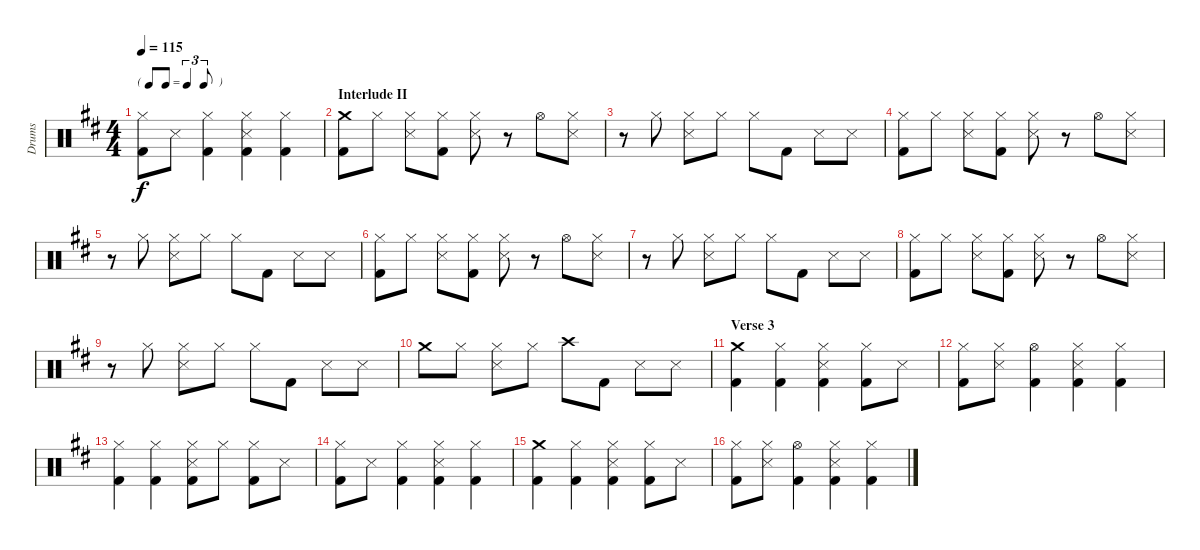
\track ("Drums" "Drums") {instrument percussion}
\staff {score}
\articulation defaults
\ts (4 4)
\tf triplet8th
\tempo 115
\clef neutral
\ks d
("Hi-Hat (closed)" "Kick (hit) 2").8{dy f} "Snare (side stick) 3".8 ("Hi-Hat (closed)" "Kick (hit) 2").4 ("Hi-Hat (closed)" "Snare (side stick) 3" "Kick (hit) 2").4 ("Hi-Hat (closed)" "Kick (hit) 2").4 |
\section ("" "Interlude II")
("Crash medium (hit)" "Kick (hit) 2").8 "Hi-Hat (closed)".8 ("Hi-Hat (closed)" "Snare (side stick) 3").8 ("Hi-Hat (closed)" "Kick (hit) 2").8 ("Hi-Hat (closed)" "Snare (side stick) 3").8 r.8 "Hi-Hat (open)".8 ("Hi-Hat (closed)" "Snare (side stick) 3").8 |
r.8 "Hi-Hat (closed)".8 ("Hi-Hat (closed)" "Snare (side stick) 3").8 "Hi-Hat (closed)".8 "Hi-Hat (closed)".8 "Kick (hit) 2".8 "Snare (side stick) 3".8 "Snare (side stick) 3".8 |
("Hi-Hat (closed)" "Kick (hit) 2").8 "Hi-Hat (closed)".8 ("Hi-Hat (closed)" "Snare (side stick) 3").8 ("Hi-Hat (closed)" "Kick (hit) 2").8 ("Hi-Hat (closed)" "Snare (side stick) 3").8 r.8 "Hi-Hat (open)".8 ("Hi-Hat (closed)" "Snare (side stick) 3").8 |
r.8 "Hi-Hat (closed)".8 ("Hi-Hat (closed)" "Snare (side stick) 3").8 "Hi-Hat (closed)".8 "Hi-Hat (closed)".8 "Kick (hit) 2".8 "Snare (side stick) 3".8 "Snare (side stick) 3".8 |
("Hi-Hat (closed)" "Kick (hit) 2").8 "Hi-Hat (closed)".8 ("Hi-Hat (closed)" "Snare (side stick) 3").8 ("Hi-Hat (closed)" "Kick (hit) 2").8 ("Hi-Hat (closed)" "Snare (side stick) 3").8 r.8 "Hi-Hat (open)".8 ("Hi-Hat (closed)" "Snare (side stick) 3").8 |
r.8 "Hi-Hat (closed)".8 ("Hi-Hat (closed)" "Snare (side stick) 3").8 "Hi-Hat (closed)".8 "Hi-Hat (closed)".8 "Kick (hit) 2".8 "Snare (side stick) 3".8 "Snare (side stick) 3".8 |
("Hi-Hat (closed)" "Kick (hit) 2").8 "Hi-Hat (closed)".8 ("Hi-Hat (closed)" "Snare (side stick) 3").8 ("Hi-Hat (closed)" "Kick (hit) 2").8 ("Hi-Hat (closed)" "Snare (side stick) 3").8 r.8 "Hi-Hat (open)".8 ("Hi-Hat (closed)" "Snare (side stick) 3").8 |
r.8 "Hi-Hat (closed)".8 ("Hi-Hat (closed)" "Snare (side stick) 3").8 "Hi-Hat (closed)".8 "Hi-Hat (closed)".8 "Kick (hit) 2".8 "Snare (side stick) 3".8 "Snare (side stick) 3".8 |
"Crash medium (hit)".8 "Hi-Hat (closed)".8 ("Hi-Hat (closed)" "Snare (side stick) 3").8 "Hi-Hat (closed)".8 "Crash high (hit)".8 "Kick (hit) 2".8 "Snare (side stick) 3".8 "Snare (side stick) 3".8 |
\section ("" "Verse 3")
("Crash medium (hit)" "Kick (hit) 2").4 ("Hi-Hat (closed)" "Kick (hit) 2").4 ("Hi-Hat (closed)" "Snare (side stick) 3" "Kick (hit) 2").4 ("Hi-Hat (closed)" "Kick (hit) 2").8 "Snare (side stick) 3".8 |
("Hi-Hat (closed)" "Kick (hit) 2").8 ("Hi-Hat (closed)" "Snare (side stick) 3").8 ("Hi-Hat (open)" "Kick (hit) 2").4 ("Hi-Hat (closed)" "Snare (side stick) 3" "Kick (hit) 2").4 ("Hi-Hat (closed)" "Kick (hit) 2").4 |
("Hi-Hat (closed)" "Kick (hit) 2").4 ("Hi-Hat (closed)" "Kick (hit) 2").4 ("Hi-Hat (closed)" "Snare (side stick) 3" "Kick (hit) 2").8 "Hi-Hat (closed)".8 ("Hi-Hat (closed)" "Kick (hit) 2").8 "Snare (side stick) 3".8 |
("Hi-Hat (closed)" "Kick (hit) 2").8 "Snare (side stick) 3".8 ("Hi-Hat (closed)" "Kick (hit) 2").4 ("Hi-Hat (closed)" "Snare (side stick) 3" "Kick (hit) 2").4 ("Hi-Hat (closed)" "Kick (hit) 2").4 |
("Crash medium (hit)" "Kick (hit) 2").4 ("Hi-Hat (closed)" "Kick (hit) 2").4 ("Hi-Hat (closed)" "Snare (side stick) 3" "Kick (hit) 2").4 ("Hi-Hat (closed)" "Kick (hit) 2").8 "Snare (side stick) 3".8 |
("Hi-Hat (closed)" "Kick (hit) 2").8 ("Hi-Hat (closed)" "Snare (side stick) 3").8 ("Hi-Hat (open)" "Kick (hit) 2").4 ("Hi-Hat (closed)" "Snare (side stick) 3" "Kick (hit) 2").4 ("Hi-Hat (closed)" "Kick (hit) 2").4
